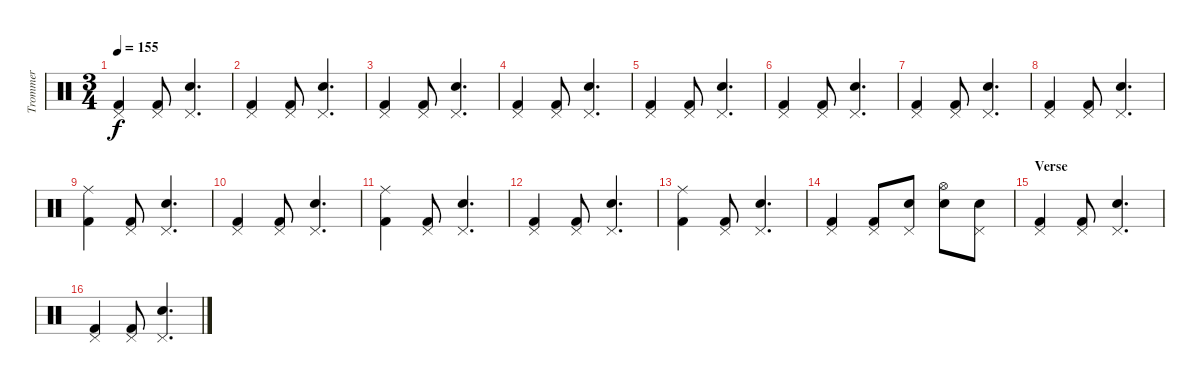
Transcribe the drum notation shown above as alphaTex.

\track ("Trommer" "Trommer") {instrument percussion}
\staff {score}
\articulation defaults
\ts (3 4)
\tempo 155
\clef neutral
\ks c
("Kick (hit) 2" "Pedal Hi-Hat (hit)").4{dy f} ("Kick (hit) 2" "Pedal Hi-Hat (hit)").8 ("Snare (hit) 2" "Pedal Hi-Hat (hit)").4{d} |
("Kick (hit) 2" "Pedal Hi-Hat (hit)").4 ("Kick (hit) 2" "Pedal Hi-Hat (hit)").8 ("Snare (hit) 2" "Pedal Hi-Hat (hit)").4{d} |
("Kick (hit) 2" "Pedal Hi-Hat (hit)").4 ("Kick (hit) 2" "Pedal Hi-Hat (hit)").8 ("Snare (hit) 2" "Pedal Hi-Hat (hit)").4{d} |
("Kick (hit) 2" "Pedal Hi-Hat (hit)").4 ("Kick (hit) 2" "Pedal Hi-Hat (hit)").8 ("Snare (hit) 2" "Pedal Hi-Hat (hit)").4{d} |
("Kick (hit) 2" "Pedal Hi-Hat (hit)").4 ("Kick (hit) 2" "Pedal Hi-Hat (hit)").8 ("Snare (hit) 2" "Pedal Hi-Hat (hit)").4{d} |
("Kick (hit) 2" "Pedal Hi-Hat (hit)").4 ("Kick (hit) 2" "Pedal Hi-Hat (hit)").8 ("Snare (hit) 2" "Pedal Hi-Hat (hit)").4{d} |
("Kick (hit) 2" "Pedal Hi-Hat (hit)").4 ("Kick (hit) 2" "Pedal Hi-Hat (hit)").8 ("Snare (hit) 2" "Pedal Hi-Hat (hit)").4{d} |
("Kick (hit) 2" "Pedal Hi-Hat (hit)").4 ("Kick (hit) 2" "Pedal Hi-Hat (hit)").8 ("Snare (hit) 2" "Pedal Hi-Hat (hit)").4{d} |
("Kick (hit) 2" "Ride (middle)").4 ("Kick (hit) 2" "Pedal Hi-Hat (hit)").8 ("Snare (hit) 2" "Pedal Hi-Hat (hit)").4{d} |
("Kick (hit) 2" "Pedal Hi-Hat (hit)").4 ("Kick (hit) 2" "Pedal Hi-Hat (hit)").8 ("Snare (hit) 2" "Pedal Hi-Hat (hit)").4{d} |
("Kick (hit) 2" "Ride (middle)").4 ("Kick (hit) 2" "Pedal Hi-Hat (hit)").8 ("Snare (hit) 2" "Pedal Hi-Hat (hit)").4{d} |
("Kick (hit) 2" "Pedal Hi-Hat (hit)").4 ("Kick (hit) 2" "Pedal Hi-Hat (hit)").8 ("Snare (hit) 2" "Pedal Hi-Hat (hit)").4{d} |
("Kick (hit) 2" "Ride (middle)").4 ("Kick (hit) 2" "Pedal Hi-Hat (hit)").8 ("Snare (hit) 2" "Pedal Hi-Hat (hit)").4{d} |
("Kick (hit) 2" "Pedal Hi-Hat (hit)").4 ("Kick (hit) 2" "Pedal Hi-Hat (hit)").8 ("Snare (hit) 2" "Pedal Hi-Hat (hit)").8 ("Snare (hit) 2" "Hi-Hat (open)").8 ("Snare (hit) 2" "Pedal Hi-Hat (hit)").8 |
\section ("" "Verse")
("Kick (hit) 2" "Pedal Hi-Hat (hit)").4 ("Kick (hit) 2" "Pedal Hi-Hat (hit)").8 ("Snare (hit) 2" "Pedal Hi-Hat (hit)").4{d} |
("Kick (hit) 2" "Pedal Hi-Hat (hit)").4 ("Kick (hit) 2" "Pedal Hi-Hat (hit)").8 ("Snare (hit) 2" "Pedal Hi-Hat (hit)").4{d}
